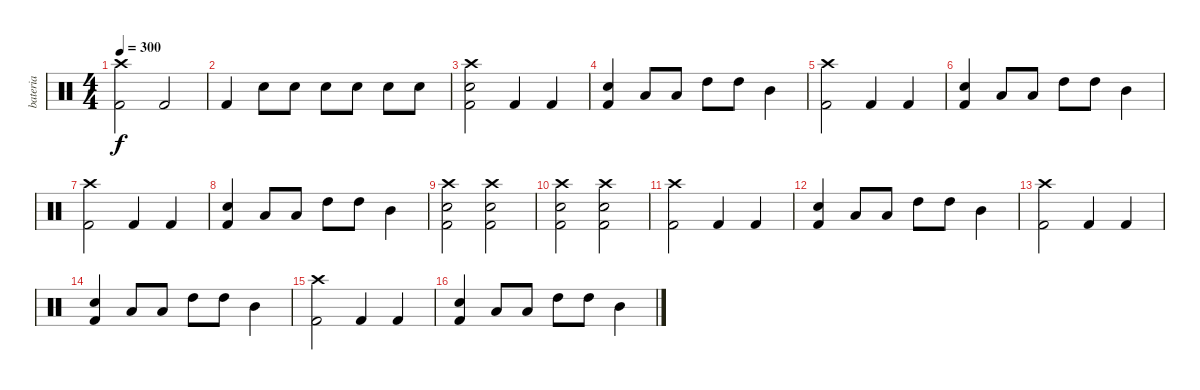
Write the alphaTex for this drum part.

\track ("bateria" "bateria") {instrument percussion}
\staff {score}
\articulation defaults
\ts (4 4)
\tempo 300
\clef neutral
\ks c
("Crash high (hit)" "Kick (hit) 2").2{dy f} "Kick (hit) 2".2 |
"Kick (hit) 2".4 "Electric Snare (hit)".8 "Electric Snare (hit)".8 "Electric Snare (hit)".8 "Electric Snare (hit)".8 "Electric Snare (hit)".8 "Electric Snare (hit)".8 |
("Crash high (hit)" "Electric Snare (hit)" "Kick (hit) 2").2 "Kick (hit) 2".4 "Kick (hit) 2".4 |
("Electric Snare (hit)" "Kick (hit) 2").4 "Low Floor Tom (hit)".8 "Low Floor Tom (hit)".8 "High Tom (hit)".8 "High Tom (hit)".8 "Mid Tom (hit)".4 |
("Crash high (hit)" "Kick (hit) 2").2 "Kick (hit) 2".4 "Kick (hit) 2".4 |
("Electric Snare (hit)" "Kick (hit) 2").4 "Low Floor Tom (hit)".8 "Low Floor Tom (hit)".8 "High Tom (hit)".8 "High Tom (hit)".8 "Mid Tom (hit)".4 |
("Crash high (hit)" "Kick (hit) 2").2 "Kick (hit) 2".4 "Kick (hit) 2".4 |
("Electric Snare (hit)" "Kick (hit) 2").4 "Low Floor Tom (hit)".8 "Low Floor Tom (hit)".8 "High Tom (hit)".8 "High Tom (hit)".8 "Mid Tom (hit)".4 |
("Crash high (hit)" "Electric Snare (hit)" "Kick (hit) 2").2 ("Crash high (hit)" "Electric Snare (hit)" "Kick (hit) 2").2 |
("Crash high (hit)" "Electric Snare (hit)" "Kick (hit) 2").2 ("Crash high (hit)" "Electric Snare (hit)" "Kick (hit) 2").2 |
("Crash high (hit)" "Kick (hit) 2").2 "Kick (hit) 2".4 "Kick (hit) 2".4 |
("Electric Snare (hit)" "Kick (hit) 2").4 "Low Floor Tom (hit)".8 "Low Floor Tom (hit)".8 "High Tom (hit)".8 "High Tom (hit)".8 "Mid Tom (hit)".4 |
("Crash high (hit)" "Kick (hit) 2").2 "Kick (hit) 2".4 "Kick (hit) 2".4 |
("Electric Snare (hit)" "Kick (hit) 2").4 "Low Floor Tom (hit)".8 "Low Floor Tom (hit)".8 "High Tom (hit)".8 "High Tom (hit)".8 "Mid Tom (hit)".4 |
("Crash high (hit)" "Kick (hit) 2").2 "Kick (hit) 2".4 "Kick (hit) 2".4 |
("Electric Snare (hit)" "Kick (hit) 2").4 "Low Floor Tom (hit)".8 "Low Floor Tom (hit)".8 "High Tom (hit)".8 "High Tom (hit)".8 "Mid Tom (hit)".4
